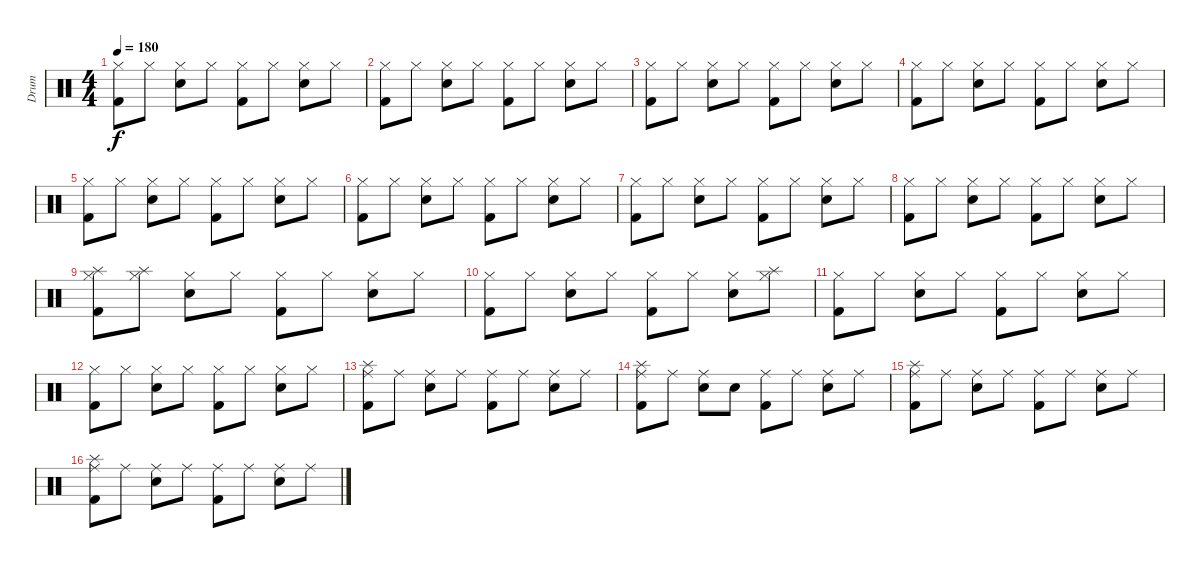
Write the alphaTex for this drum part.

\track ("Drum" "Drum") {instrument percussion}
\staff {score}
\articulation defaults
\ts (4 4)
\tempo 180
\clef neutral
\ks c
("Hi-Hat (closed)" "Kick (hit) 2").8{dy f} "Hi-Hat (closed)".8 ("Hi-Hat (closed)" "Snare (hit) 2").8 "Hi-Hat (closed)".8 ("Hi-Hat (closed)" "Kick (hit) 2").8 "Hi-Hat (closed)".8 ("Hi-Hat (closed)" "Snare (hit) 2").8 "Hi-Hat (closed)".8 |
("Hi-Hat (closed)" "Kick (hit) 2").8 "Hi-Hat (closed)".8 ("Hi-Hat (closed)" "Snare (hit) 2").8 "Hi-Hat (closed)".8 ("Hi-Hat (closed)" "Kick (hit) 2").8 "Hi-Hat (closed)".8 ("Hi-Hat (closed)" "Snare (hit) 2").8 "Hi-Hat (closed)".8 |
("Hi-Hat (closed)" "Kick (hit) 2").8 "Hi-Hat (closed)".8 ("Hi-Hat (closed)" "Snare (hit) 2").8 "Hi-Hat (closed)".8 ("Hi-Hat (closed)" "Kick (hit) 2").8 "Hi-Hat (closed)".8 ("Hi-Hat (closed)" "Snare (hit) 2").8 "Hi-Hat (closed)".8 |
("Hi-Hat (closed)" "Kick (hit) 2").8 "Hi-Hat (closed)".8 ("Hi-Hat (closed)" "Snare (hit) 2").8 "Hi-Hat (closed)".8 ("Hi-Hat (closed)" "Kick (hit) 2").8 "Hi-Hat (closed)".8 ("Hi-Hat (closed)" "Snare (hit) 2").8 "Hi-Hat (closed)".8 |
("Hi-Hat (closed)" "Kick (hit) 2").8 "Hi-Hat (closed)".8 ("Hi-Hat (closed)" "Snare (hit) 2").8 "Hi-Hat (closed)".8 ("Hi-Hat (closed)" "Kick (hit) 2").8 "Hi-Hat (closed)".8 ("Hi-Hat (closed)" "Snare (hit) 2").8 "Hi-Hat (closed)".8 |
("Hi-Hat (closed)" "Kick (hit) 2").8 "Hi-Hat (closed)".8 ("Hi-Hat (closed)" "Snare (hit) 2").8 "Hi-Hat (closed)".8 ("Hi-Hat (closed)" "Kick (hit) 2").8 "Hi-Hat (closed)".8 ("Hi-Hat (closed)" "Snare (hit) 2").8 "Hi-Hat (closed)".8 |
("Hi-Hat (closed)" "Kick (hit) 2").8 "Hi-Hat (closed)".8 ("Hi-Hat (closed)" "Snare (hit) 2").8 "Hi-Hat (closed)".8 ("Hi-Hat (closed)" "Kick (hit) 2").8 "Hi-Hat (closed)".8 ("Hi-Hat (closed)" "Snare (hit) 2").8 "Hi-Hat (closed)".8 |
("Hi-Hat (closed)" "Kick (hit) 2").8 "Hi-Hat (closed)".8 ("Hi-Hat (closed)" "Snare (hit) 2").8 "Hi-Hat (closed)".8 ("Hi-Hat (closed)" "Kick (hit) 2").8 "Hi-Hat (closed)".8 ("Hi-Hat (closed)" "Snare (hit) 2").8 "Hi-Hat (closed)".8 |
("Hi-Hat (closed)" "Kick (hit) 2" "Splash (hit)").8 ("Hi-Hat (closed)" "Splash (hit)").8 ("Hi-Hat (closed)" "Snare (hit) 2").8 "Hi-Hat (closed)".8 ("Hi-Hat (closed)" "Kick (hit) 2").8 "Hi-Hat (closed)".8 ("Hi-Hat (closed)" "Snare (hit) 2").8 "Hi-Hat (closed)".8 |
("Hi-Hat (closed)" "Kick (hit) 2").8 "Hi-Hat (closed)".8 ("Hi-Hat (closed)" "Snare (hit) 2").8 "Hi-Hat (closed)".8 ("Hi-Hat (closed)" "Kick (hit) 2").8 "Hi-Hat (closed)".8 ("Hi-Hat (closed)" "Snare (hit) 2").8 ("Hi-Hat (closed)" "Splash (hit)").8 |
("Hi-Hat (closed)" "Kick (hit) 2").8 "Hi-Hat (closed)".8 ("Hi-Hat (closed)" "Snare (hit) 2").8 "Hi-Hat (closed)".8 ("Hi-Hat (closed)" "Kick (hit) 2").8 "Hi-Hat (closed)".8 ("Hi-Hat (closed)" "Snare (hit) 2").8 "Hi-Hat (closed)".8 |
("Hi-Hat (closed)" "Kick (hit) 2").8 "Hi-Hat (closed)".8 ("Hi-Hat (closed)" "Snare (hit) 2").8 "Hi-Hat (closed)".8 ("Hi-Hat (closed)" "Kick (hit) 2").8 "Hi-Hat (closed)".8 ("Hi-Hat (closed)" "Snare (hit) 2").8 "Hi-Hat (closed)".8 |
("Ride (middle)" "Kick (hit) 2" "Splash (hit)").8 "Ride (middle)".8 ("Ride (middle)" "Snare (hit) 2").8 "Ride (middle)".8 ("Ride (middle)" "Kick (hit) 2").8 "Ride (middle)".8 ("Ride (middle)" "Snare (hit) 2").8 "Ride (middle)".8 |
("Ride (middle)" "Kick (hit) 2" "Splash (hit)").8 "Ride (middle)".8 ("Ride (middle)" "Snare (hit) 2").8 "Snare (hit)".8 ("Ride (middle)" "Kick (hit) 2").8 "Ride (middle)".8 ("Ride (middle)" "Snare (hit) 2").8 "Ride (middle)".8 |
("Ride (middle)" "Kick (hit) 2" "Splash (hit)").8 "Ride (middle)".8 ("Ride (middle)" "Snare (hit) 2").8 "Ride (middle)".8 ("Ride (middle)" "Kick (hit) 2").8 "Ride (middle)".8 ("Ride (middle)" "Snare (hit) 2").8 "Ride (middle)".8 |
("Ride (middle)" "Kick (hit) 2" "Splash (hit)").8 "Ride (middle)".8 ("Ride (middle)" "Snare (hit) 2").8 "Ride (middle)".8 ("Ride (middle)" "Kick (hit) 2").8 "Ride (middle)".8 ("Ride (middle)" "Snare (hit) 2").8 "Ride (middle)".8
